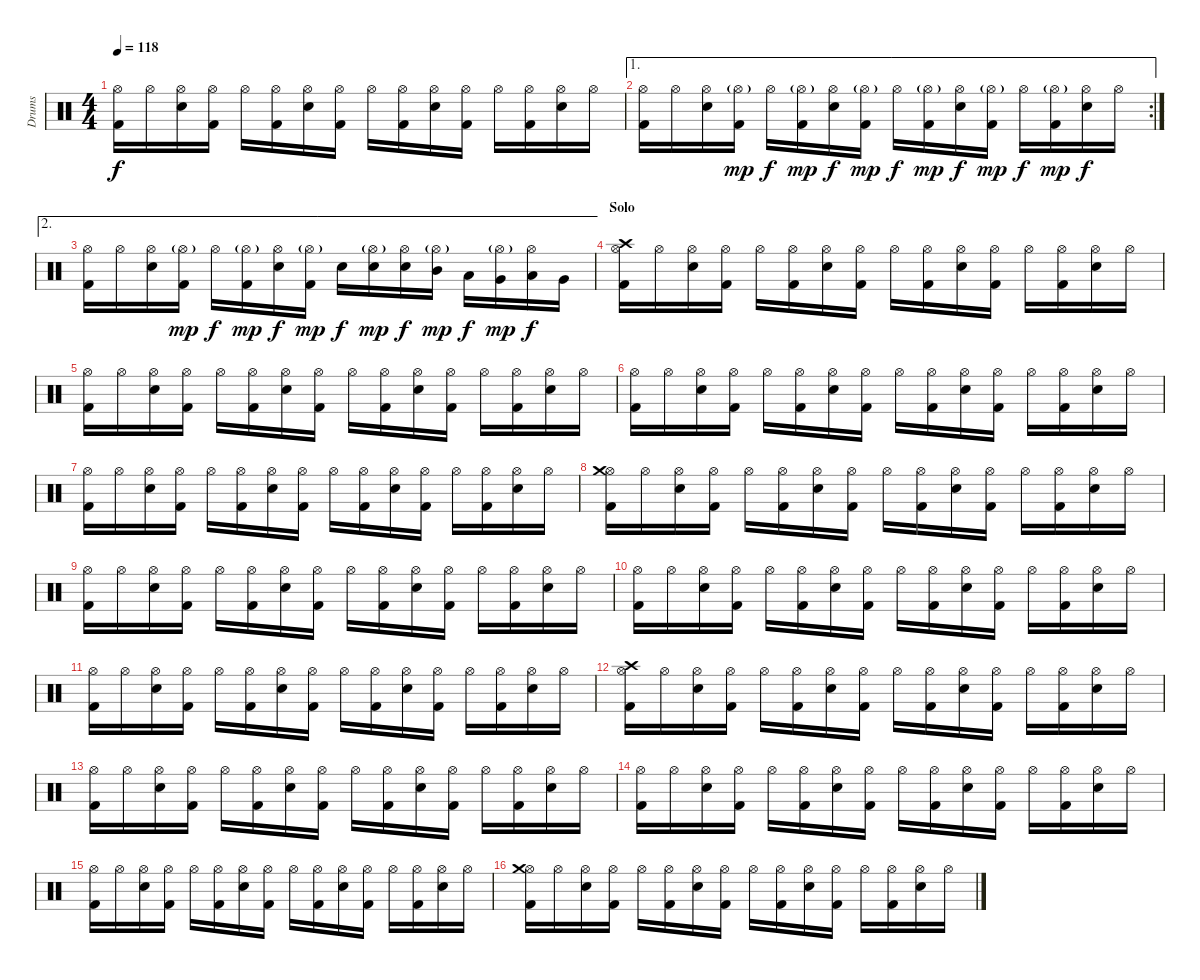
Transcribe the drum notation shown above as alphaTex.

\track ("Drums" "Drums") {instrument percussion}
\staff {score}
\articulation defaults
\ts (4 4)
\tempo 118
\clef neutral
\ks c
("Kick (hit) 2" "Hi-Hat (open)").16{dy f} "Hi-Hat (open)".16 ("Snare (hit) 2" "Hi-Hat (open)").16 ("Kick (hit) 2" "Hi-Hat (open)").16 "Hi-Hat (open)".16 ("Kick (hit) 2" "Hi-Hat (open)").16 ("Snare (hit) 2" "Hi-Hat (open)").16 ("Kick (hit) 2" "Hi-Hat (open)").16 "Hi-Hat (open)".16 ("Kick (hit) 2" "Hi-Hat (open)").16 ("Snare (hit) 2" "Hi-Hat (open)").16 ("Kick (hit) 2" "Hi-Hat (open)").16 "Hi-Hat (open)".16 ("Kick (hit) 2" "Hi-Hat (open)").16 ("Snare (hit) 2" "Hi-Hat (open)").16 "Hi-Hat (open)".16 |
\ae 1
\rc 2
("Kick (hit) 2" "Hi-Hat (open)").16 "Hi-Hat (open)".16 ("Snare (hit) 2" "Hi-Hat (open)").16 ("Kick (hit) 2" "Hi-Hat (open)"{g}).16{dy mp} "Hi-Hat (open)".16{dy f} ("Kick (hit) 2" "Hi-Hat (open)"{g}).16{dy mp} ("Snare (hit) 2" "Hi-Hat (open)").16{dy f} ("Kick (hit) 2" "Hi-Hat (open)"{g}).16{dy mp} "Hi-Hat (open)".16{dy f} ("Kick (hit) 2" "Hi-Hat (open)"{g}).16{dy mp} ("Snare (hit) 2" "Hi-Hat (open)").16{dy f} ("Kick (hit) 2" "Hi-Hat (open)"{g}).16{dy mp} "Hi-Hat (open)".16{dy f} ("Kick (hit) 2" "Hi-Hat (open)"{g}).16{dy mp} ("Snare (hit) 2" "Hi-Hat (open)").16{dy f} "Hi-Hat (open)".16 |
\ae 2
("Kick (hit) 2" "Hi-Hat (open)").16 "Hi-Hat (open)".16 ("Snare (hit) 2" "Hi-Hat (open)").16 ("Kick (hit) 2" "Hi-Hat (open)"{g}).16{dy mp} "Hi-Hat (open)".16{dy f} ("Kick (hit) 2" "Hi-Hat (open)"{g}).16{dy mp} ("Snare (hit) 2" "Hi-Hat (open)").16{dy f} ("Kick (hit) 2" "Hi-Hat (open)"{g}).16{dy mp} "Snare (hit) 2".16{dy f} ("Snare (hit) 2" "Hi-Hat (open)"{g}).16{dy mp} ("Snare (hit) 2" "Hi-Hat (open)").16{dy f} ("Mid Tom (hit)" "Hi-Hat (open)"{g}).16{dy mp} "Low Tom (hit)".16{dy f} ("Very Low Tom (hit)" "Hi-Hat (open)"{g}).16{dy mp} ("Low Floor Tom (hit)" "Hi-Hat (open)").16{dy f} "Very Low Tom (hit)".16 |
\section ("" "Solo")
("Kick (hit) 2" "Hi-Hat (open)" "Crash high (hit)").16 "Hi-Hat (open)".16 ("Snare (hit) 2" "Hi-Hat (open)").16 ("Kick (hit) 2" "Hi-Hat (open)").16 "Hi-Hat (open)".16 ("Kick (hit) 2" "Hi-Hat (open)").16 ("Snare (hit) 2" "Hi-Hat (open)").16 ("Kick (hit) 2" "Hi-Hat (open)").16 "Hi-Hat (open)".16 ("Kick (hit) 2" "Hi-Hat (open)").16 ("Snare (hit) 2" "Hi-Hat (open)").16 ("Kick (hit) 2" "Hi-Hat (open)").16 "Hi-Hat (open)".16 ("Kick (hit) 2" "Hi-Hat (open)").16 ("Snare (hit) 2" "Hi-Hat (open)").16 "Hi-Hat (open)".16 |
("Kick (hit) 2" "Hi-Hat (open)").16 "Hi-Hat (open)".16 ("Snare (hit) 2" "Hi-Hat (open)").16 ("Kick (hit) 2" "Hi-Hat (open)").16 "Hi-Hat (open)".16 ("Kick (hit) 2" "Hi-Hat (open)").16 ("Snare (hit) 2" "Hi-Hat (open)").16 ("Kick (hit) 2" "Hi-Hat (open)").16 "Hi-Hat (open)".16 ("Kick (hit) 2" "Hi-Hat (open)").16 ("Snare (hit) 2" "Hi-Hat (open)").16 ("Kick (hit) 2" "Hi-Hat (open)").16 "Hi-Hat (open)".16 ("Kick (hit) 2" "Hi-Hat (open)").16 ("Snare (hit) 2" "Hi-Hat (open)").16 "Hi-Hat (open)".16 |
("Kick (hit) 2" "Hi-Hat (open)").16 "Hi-Hat (open)".16 ("Snare (hit) 2" "Hi-Hat (open)").16 ("Kick (hit) 2" "Hi-Hat (open)").16 "Hi-Hat (open)".16 ("Kick (hit) 2" "Hi-Hat (open)").16 ("Snare (hit) 2" "Hi-Hat (open)").16 ("Kick (hit) 2" "Hi-Hat (open)").16 "Hi-Hat (open)".16 ("Kick (hit) 2" "Hi-Hat (open)").16 ("Snare (hit) 2" "Hi-Hat (open)").16 ("Kick (hit) 2" "Hi-Hat (open)").16 "Hi-Hat (open)".16 ("Kick (hit) 2" "Hi-Hat (open)").16 ("Snare (hit) 2" "Hi-Hat (open)").16 "Hi-Hat (open)".16 |
("Kick (hit) 2" "Hi-Hat (open)").16 "Hi-Hat (open)".16 ("Snare (hit) 2" "Hi-Hat (open)").16 ("Kick (hit) 2" "Hi-Hat (open)").16 "Hi-Hat (open)".16 ("Kick (hit) 2" "Hi-Hat (open)").16 ("Snare (hit) 2" "Hi-Hat (open)").16 ("Kick (hit) 2" "Hi-Hat (open)").16 "Hi-Hat (open)".16 ("Kick (hit) 2" "Hi-Hat (open)").16 ("Snare (hit) 2" "Hi-Hat (open)").16 ("Kick (hit) 2" "Hi-Hat (open)").16 "Hi-Hat (open)".16 ("Kick (hit) 2" "Hi-Hat (open)").16 ("Snare (hit) 2" "Hi-Hat (open)").16 "Hi-Hat (open)".16 |
("Kick (hit) 2" "Hi-Hat (open)" "Crash medium (hit)").16 "Hi-Hat (open)".16 ("Snare (hit) 2" "Hi-Hat (open)").16 ("Kick (hit) 2" "Hi-Hat (open)").16 "Hi-Hat (open)".16 ("Kick (hit) 2" "Hi-Hat (open)").16 ("Snare (hit) 2" "Hi-Hat (open)").16 ("Kick (hit) 2" "Hi-Hat (open)").16 "Hi-Hat (open)".16 ("Kick (hit) 2" "Hi-Hat (open)").16 ("Snare (hit) 2" "Hi-Hat (open)").16 ("Kick (hit) 2" "Hi-Hat (open)").16 "Hi-Hat (open)".16 ("Kick (hit) 2" "Hi-Hat (open)").16 ("Snare (hit) 2" "Hi-Hat (open)").16 "Hi-Hat (open)".16 |
("Kick (hit) 2" "Hi-Hat (open)").16 "Hi-Hat (open)".16 ("Snare (hit) 2" "Hi-Hat (open)").16 ("Kick (hit) 2" "Hi-Hat (open)").16 "Hi-Hat (open)".16 ("Kick (hit) 2" "Hi-Hat (open)").16 ("Snare (hit) 2" "Hi-Hat (open)").16 ("Kick (hit) 2" "Hi-Hat (open)").16 "Hi-Hat (open)".16 ("Kick (hit) 2" "Hi-Hat (open)").16 ("Snare (hit) 2" "Hi-Hat (open)").16 ("Kick (hit) 2" "Hi-Hat (open)").16 "Hi-Hat (open)".16 ("Kick (hit) 2" "Hi-Hat (open)").16 ("Snare (hit) 2" "Hi-Hat (open)").16 "Hi-Hat (open)".16 |
("Kick (hit) 2" "Hi-Hat (open)").16 "Hi-Hat (open)".16 ("Snare (hit) 2" "Hi-Hat (open)").16 ("Kick (hit) 2" "Hi-Hat (open)").16 "Hi-Hat (open)".16 ("Kick (hit) 2" "Hi-Hat (open)").16 ("Snare (hit) 2" "Hi-Hat (open)").16 ("Kick (hit) 2" "Hi-Hat (open)").16 "Hi-Hat (open)".16 ("Kick (hit) 2" "Hi-Hat (open)").16 ("Snare (hit) 2" "Hi-Hat (open)").16 ("Kick (hit) 2" "Hi-Hat (open)").16 "Hi-Hat (open)".16 ("Kick (hit) 2" "Hi-Hat (open)").16 ("Snare (hit) 2" "Hi-Hat (open)").16 "Hi-Hat (open)".16 |
("Kick (hit) 2" "Hi-Hat (open)").16 "Hi-Hat (open)".16 ("Snare (hit) 2" "Hi-Hat (open)").16 ("Kick (hit) 2" "Hi-Hat (open)").16 "Hi-Hat (open)".16 ("Kick (hit) 2" "Hi-Hat (open)").16 ("Snare (hit) 2" "Hi-Hat (open)").16 ("Kick (hit) 2" "Hi-Hat (open)").16 "Hi-Hat (open)".16 ("Kick (hit) 2" "Hi-Hat (open)").16 ("Snare (hit) 2" "Hi-Hat (open)").16 ("Kick (hit) 2" "Hi-Hat (open)").16 "Hi-Hat (open)".16 ("Kick (hit) 2" "Hi-Hat (open)").16 ("Snare (hit) 2" "Hi-Hat (open)").16 "Hi-Hat (open)".16 |
("Kick (hit) 2" "Hi-Hat (open)" "Crash high (hit)").16 "Hi-Hat (open)".16 ("Snare (hit) 2" "Hi-Hat (open)").16 ("Kick (hit) 2" "Hi-Hat (open)").16 "Hi-Hat (open)".16 ("Kick (hit) 2" "Hi-Hat (open)").16 ("Snare (hit) 2" "Hi-Hat (open)").16 ("Kick (hit) 2" "Hi-Hat (open)").16 "Hi-Hat (open)".16 ("Kick (hit) 2" "Hi-Hat (open)").16 ("Snare (hit) 2" "Hi-Hat (open)").16 ("Kick (hit) 2" "Hi-Hat (open)").16 "Hi-Hat (open)".16 ("Kick (hit) 2" "Hi-Hat (open)").16 ("Snare (hit) 2" "Hi-Hat (open)").16 "Hi-Hat (open)".16 |
("Kick (hit) 2" "Hi-Hat (open)").16 "Hi-Hat (open)".16 ("Snare (hit) 2" "Hi-Hat (open)").16 ("Kick (hit) 2" "Hi-Hat (open)").16 "Hi-Hat (open)".16 ("Kick (hit) 2" "Hi-Hat (open)").16 ("Snare (hit) 2" "Hi-Hat (open)").16 ("Kick (hit) 2" "Hi-Hat (open)").16 "Hi-Hat (open)".16 ("Kick (hit) 2" "Hi-Hat (open)").16 ("Snare (hit) 2" "Hi-Hat (open)").16 ("Kick (hit) 2" "Hi-Hat (open)").16 "Hi-Hat (open)".16 ("Kick (hit) 2" "Hi-Hat (open)").16 ("Snare (hit) 2" "Hi-Hat (open)").16 "Hi-Hat (open)".16 |
("Kick (hit) 2" "Hi-Hat (open)").16 "Hi-Hat (open)".16 ("Snare (hit) 2" "Hi-Hat (open)").16 ("Kick (hit) 2" "Hi-Hat (open)").16 "Hi-Hat (open)".16 ("Kick (hit) 2" "Hi-Hat (open)").16 ("Snare (hit) 2" "Hi-Hat (open)").16 ("Kick (hit) 2" "Hi-Hat (open)").16 "Hi-Hat (open)".16 ("Kick (hit) 2" "Hi-Hat (open)").16 ("Snare (hit) 2" "Hi-Hat (open)").16 ("Kick (hit) 2" "Hi-Hat (open)").16 "Hi-Hat (open)".16 ("Kick (hit) 2" "Hi-Hat (open)").16 ("Snare (hit) 2" "Hi-Hat (open)").16 "Hi-Hat (open)".16 |
("Kick (hit) 2" "Hi-Hat (open)").16 "Hi-Hat (open)".16 ("Snare (hit) 2" "Hi-Hat (open)").16 ("Kick (hit) 2" "Hi-Hat (open)").16 "Hi-Hat (open)".16 ("Kick (hit) 2" "Hi-Hat (open)").16 ("Snare (hit) 2" "Hi-Hat (open)").16 ("Kick (hit) 2" "Hi-Hat (open)").16 "Hi-Hat (open)".16 ("Kick (hit) 2" "Hi-Hat (open)").16 ("Snare (hit) 2" "Hi-Hat (open)").16 ("Kick (hit) 2" "Hi-Hat (open)").16 "Hi-Hat (open)".16 ("Kick (hit) 2" "Hi-Hat (open)").16 ("Snare (hit) 2" "Hi-Hat (open)").16 "Hi-Hat (open)".16 |
("Kick (hit) 2" "Hi-Hat (open)" "Crash medium (hit)").16 "Hi-Hat (open)".16 ("Snare (hit) 2" "Hi-Hat (open)").16 ("Kick (hit) 2" "Hi-Hat (open)").16 "Hi-Hat (open)".16 ("Kick (hit) 2" "Hi-Hat (open)").16 ("Snare (hit) 2" "Hi-Hat (open)").16 ("Kick (hit) 2" "Hi-Hat (open)").16 "Hi-Hat (open)".16 ("Kick (hit) 2" "Hi-Hat (open)").16 ("Snare (hit) 2" "Hi-Hat (open)").16 ("Kick (hit) 2" "Hi-Hat (open)").16 "Hi-Hat (open)".16 ("Kick (hit) 2" "Hi-Hat (open)").16 ("Snare (hit) 2" "Hi-Hat (open)").16 "Hi-Hat (open)".16
